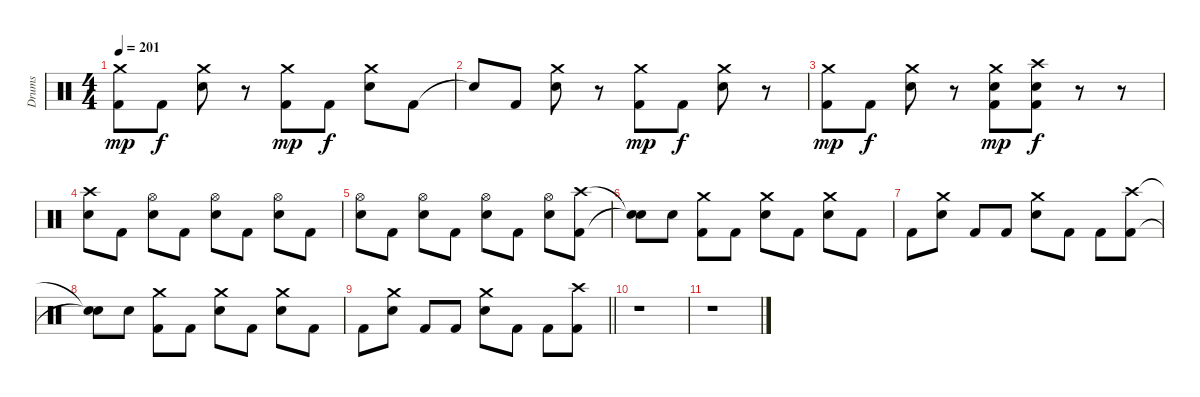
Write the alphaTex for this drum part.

\track ("Drums" "Drums") {instrument percussion}
\staff {score}
\articulation defaults
\ts (4 4)
\tempo 201
\clef neutral
\ks c
("Kick (hit) 2" "Crash medium (hit)").8{dy mp} "Kick (hit) 2".8{dy f} ("Snare (hit) 2" "Crash medium (hit)").8 r.8 ("Kick (hit) 2" "Crash medium (hit)").8{dy mp} "Kick (hit) 2".8{dy f} ("Snare (hit) 2" "Crash medium (hit)").8 "Kick (hit) 2".8 |
"Snare (hit)"{t}.8 "Kick (hit) 2".8 ("Snare (hit) 2" "Crash medium (hit)").8 r.8 ("Kick (hit) 2" "Crash medium (hit)").8{dy mp} "Kick (hit) 2".8{dy f} ("Snare (hit) 2" "Crash medium (hit)").8 r.8 |
("Kick (hit) 2" "Crash medium (hit)").8{dy mp} "Kick (hit) 2".8{dy f} ("Snare (hit) 2" "Crash medium (hit)").8 r.8 ("Kick (hit) 2" "Snare (hit) 2" "Crash medium (hit)").8{dy mp} ("Kick (hit) 2" "Snare (hit) 2" "Crash high (hit)").8{dy f} r.8 r.8 |
("Snare (hit) 2" "Crash high (hit)").8 "Kick (hit) 2".8 ("Snare (hit) 2" "Hi-Hat (open)").8 "Kick (hit) 2".8 ("Snare (hit) 2" "Hi-Hat (open)").8 "Kick (hit) 2".8 ("Snare (hit) 2" "Hi-Hat (open)").8 "Kick (hit) 2".8 |
("Snare (hit) 2" "Hi-Hat (open)").8 "Kick (hit) 2".8 ("Snare (hit) 2" "Hi-Hat (open)").8 "Kick (hit) 2".8 ("Snare (hit) 2" "Hi-Hat (open)").8 "Kick (hit) 2".8 ("Snare (hit) 2" "Hi-Hat (open)").8 ("Kick (hit) 2" "Crash high (hit)").8 |
("Snare (hit)"{t} "Snare (hit)"{t}).8 "Snare (hit) 2".8 ("Kick (hit) 2" "Crash medium (hit)").8 "Kick (hit) 2".8 ("Snare (hit) 2" "Crash medium (hit)").8 "Kick (hit) 2".8 ("Snare (hit) 2" "Crash medium (hit)").8 "Kick (hit) 2".8 |
"Kick (hit) 2".8 ("Snare (hit) 2" "Crash medium (hit)").8 "Kick (hit) 2".8 "Kick (hit) 2".8 ("Snare (hit) 2" "Crash medium (hit)").8 "Kick (hit) 2".8 "Kick (hit) 2".8 ("Kick (hit) 2" "Crash high (hit)").8 |
("Snare (hit)"{t} "Snare (hit)"{t}).8 "Snare (hit) 2".8 ("Kick (hit) 2" "Crash medium (hit)").8 "Kick (hit) 2".8 ("Snare (hit) 2" "Crash medium (hit)").8 "Kick (hit) 2".8 ("Snare (hit) 2" "Crash medium (hit)").8 "Kick (hit) 2".8 |
\barLineRight lightlight "Kick (hit) 2".8
("Snare (hit) 2" "Crash medium (hit)").8 "Kick (hit) 2".8 "Kick (hit) 2".8 ("Snare (hit) 2" "Crash medium (hit)").8 "Kick (hit) 2".8 "Kick (hit) 2".8 ("Kick (hit) 2" "Crash high (hit)").8 |
r.1 |
r.1
